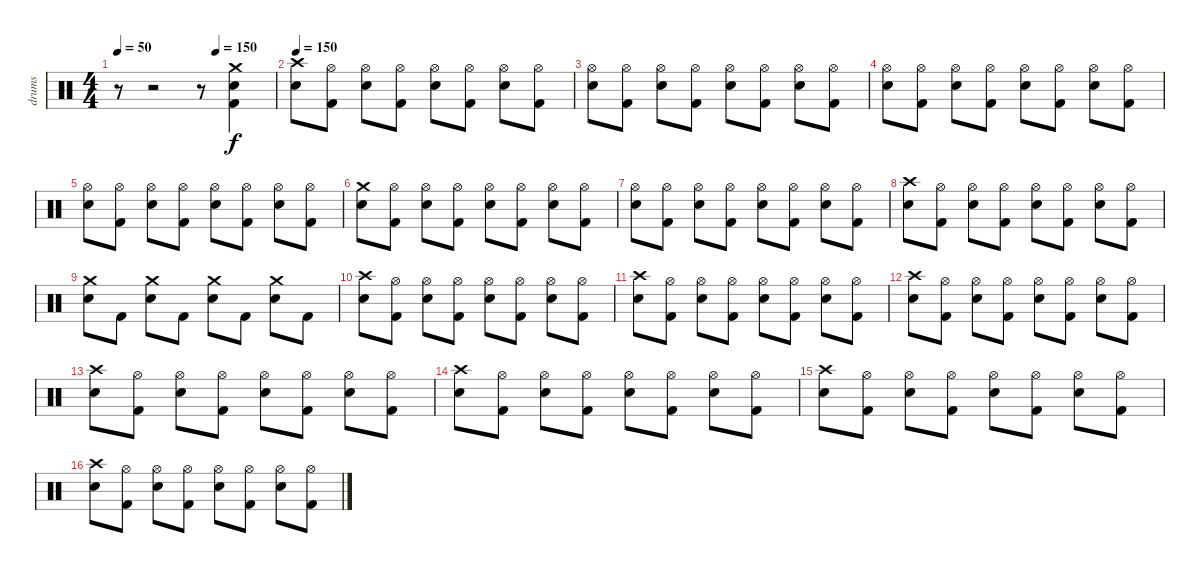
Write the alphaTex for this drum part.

\track ("drums" "drums") {instrument percussion}
\staff {score}
\articulation defaults
\ts (4 4)
\tempo 50
\tempo (150 0.625)
\clef neutral
\ks c
r.8{dy f} r.2 r.8 ("Crash medium (hit)" "Electric Snare (hit)" "Kick (hit) 2").4 |
\tempo 150
("Crash high (hit)" "Electric Snare (hit)").8 ("Hi-Hat (open)" "Kick (hit) 2").8 ("Hi-Hat (open)" "Electric Snare (hit)").8 ("Hi-Hat (open)" "Kick (hit) 2").8 ("Hi-Hat (open)" "Electric Snare (hit)").8 ("Hi-Hat (open)" "Kick (hit) 2").8 ("Hi-Hat (open)" "Electric Snare (hit)").8 ("Hi-Hat (open)" "Kick (hit) 2").8 |
("Hi-Hat (open)" "Electric Snare (hit)").8 ("Hi-Hat (open)" "Kick (hit) 2").8 ("Hi-Hat (open)" "Electric Snare (hit)").8 ("Hi-Hat (open)" "Kick (hit) 2").8 ("Hi-Hat (open)" "Electric Snare (hit)").8 ("Hi-Hat (open)" "Kick (hit) 2").8 ("Hi-Hat (open)" "Electric Snare (hit)").8 ("Hi-Hat (open)" "Kick (hit) 2").8 |
("Hi-Hat (open)" "Electric Snare (hit)").8 ("Hi-Hat (open)" "Kick (hit) 2").8 ("Hi-Hat (open)" "Electric Snare (hit)").8 ("Hi-Hat (open)" "Kick (hit) 2").8 ("Hi-Hat (open)" "Electric Snare (hit)").8 ("Hi-Hat (open)" "Kick (hit) 2").8 ("Hi-Hat (open)" "Electric Snare (hit)").8 ("Hi-Hat (open)" "Kick (hit) 2").8 |
("Hi-Hat (open)" "Electric Snare (hit)").8 ("Hi-Hat (open)" "Kick (hit) 2").8 ("Hi-Hat (open)" "Electric Snare (hit)").8 ("Hi-Hat (open)" "Kick (hit) 2").8 ("Hi-Hat (open)" "Electric Snare (hit)").8 ("Hi-Hat (open)" "Kick (hit) 2").8 ("Hi-Hat (open)" "Electric Snare (hit)").8 ("Hi-Hat (open)" "Kick (hit) 2").8 |
("Crash medium (hit)" "Electric Snare (hit)").8 ("Hi-Hat (open)" "Kick (hit) 2").8 ("Hi-Hat (open)" "Electric Snare (hit)").8 ("Hi-Hat (open)" "Kick (hit) 2").8 ("Hi-Hat (open)" "Electric Snare (hit)").8 ("Hi-Hat (open)" "Kick (hit) 2").8 ("Hi-Hat (open)" "Electric Snare (hit)").8 ("Hi-Hat (open)" "Kick (hit) 2").8 |
("Hi-Hat (open)" "Electric Snare (hit)").8 ("Hi-Hat (open)" "Kick (hit) 2").8 ("Hi-Hat (open)" "Electric Snare (hit)").8 ("Hi-Hat (open)" "Kick (hit) 2").8 ("Hi-Hat (open)" "Electric Snare (hit)").8 ("Hi-Hat (open)" "Kick (hit) 2").8 ("Hi-Hat (open)" "Electric Snare (hit)").8 ("Hi-Hat (open)" "Kick (hit) 2").8 |
("Crash high (hit)" "Electric Snare (hit)").8 ("Hi-Hat (open)" "Kick (hit) 2").8 ("Hi-Hat (open)" "Electric Snare (hit)").8 ("Hi-Hat (open)" "Kick (hit) 2").8 ("Hi-Hat (open)" "Electric Snare (hit)").8 ("Hi-Hat (open)" "Kick (hit) 2").8 ("Hi-Hat (open)" "Electric Snare (hit)").8 ("Hi-Hat (open)" "Kick (hit) 2").8 |
("Crash medium (hit)" "Electric Snare (hit)").8 "Kick (hit) 2".8 ("Crash medium (hit)" "Electric Snare (hit)").8 "Kick (hit) 2".8 ("Crash medium (hit)" "Electric Snare (hit)").8 "Kick (hit) 2".8 ("Crash medium (hit)" "Electric Snare (hit)").8 "Kick (hit) 2".8 |
("Crash high (hit)" "Electric Snare (hit)").8 ("Hi-Hat (open)" "Kick (hit) 2").8 ("Hi-Hat (open)" "Electric Snare (hit)").8 ("Hi-Hat (open)" "Kick (hit) 2").8 ("Hi-Hat (open)" "Electric Snare (hit)").8 ("Hi-Hat (open)" "Kick (hit) 2").8 ("Hi-Hat (open)" "Electric Snare (hit)").8 ("Hi-Hat (open)" "Kick (hit) 2").8 |
("Crash high (hit)" "Electric Snare (hit)").8 ("Hi-Hat (open)" "Kick (hit) 2").8 ("Hi-Hat (open)" "Electric Snare (hit)").8 ("Hi-Hat (open)" "Kick (hit) 2").8 ("Hi-Hat (open)" "Electric Snare (hit)").8 ("Hi-Hat (open)" "Kick (hit) 2").8 ("Hi-Hat (open)" "Electric Snare (hit)").8 ("Hi-Hat (open)" "Kick (hit) 2").8 |
("Crash high (hit)" "Electric Snare (hit)").8 ("Hi-Hat (open)" "Kick (hit) 2").8 ("Hi-Hat (open)" "Electric Snare (hit)").8 ("Hi-Hat (open)" "Kick (hit) 2").8 ("Hi-Hat (open)" "Electric Snare (hit)").8 ("Hi-Hat (open)" "Kick (hit) 2").8 ("Hi-Hat (open)" "Electric Snare (hit)").8 ("Hi-Hat (open)" "Kick (hit) 2").8 |
("Crash high (hit)" "Electric Snare (hit)").8 ("Hi-Hat (open)" "Kick (hit) 2").8 ("Hi-Hat (open)" "Electric Snare (hit)").8 ("Hi-Hat (open)" "Kick (hit) 2").8 ("Hi-Hat (open)" "Electric Snare (hit)").8 ("Hi-Hat (open)" "Kick (hit) 2").8 ("Hi-Hat (open)" "Electric Snare (hit)").8 ("Hi-Hat (open)" "Kick (hit) 2").8 |
("Crash high (hit)" "Electric Snare (hit)").8 ("Hi-Hat (open)" "Kick (hit) 2").8 ("Hi-Hat (open)" "Electric Snare (hit)").8 ("Hi-Hat (open)" "Kick (hit) 2").8 ("Hi-Hat (open)" "Electric Snare (hit)").8 ("Hi-Hat (open)" "Kick (hit) 2").8 ("Hi-Hat (open)" "Electric Snare (hit)").8 ("Hi-Hat (open)" "Kick (hit) 2").8 |
("Crash high (hit)" "Electric Snare (hit)").8 ("Hi-Hat (open)" "Kick (hit) 2").8 ("Hi-Hat (open)" "Electric Snare (hit)").8 ("Hi-Hat (open)" "Kick (hit) 2").8 ("Hi-Hat (open)" "Electric Snare (hit)").8 ("Hi-Hat (open)" "Kick (hit) 2").8 ("Hi-Hat (open)" "Electric Snare (hit)").8 ("Hi-Hat (open)" "Kick (hit) 2").8 |
("Crash high (hit)" "Electric Snare (hit)").8 ("Hi-Hat (open)" "Kick (hit) 2").8 ("Hi-Hat (open)" "Electric Snare (hit)").8 ("Hi-Hat (open)" "Kick (hit) 2").8 ("Hi-Hat (open)" "Electric Snare (hit)").8 ("Hi-Hat (open)" "Kick (hit) 2").8 ("Hi-Hat (open)" "Electric Snare (hit)").8 ("Hi-Hat (open)" "Kick (hit) 2").8
